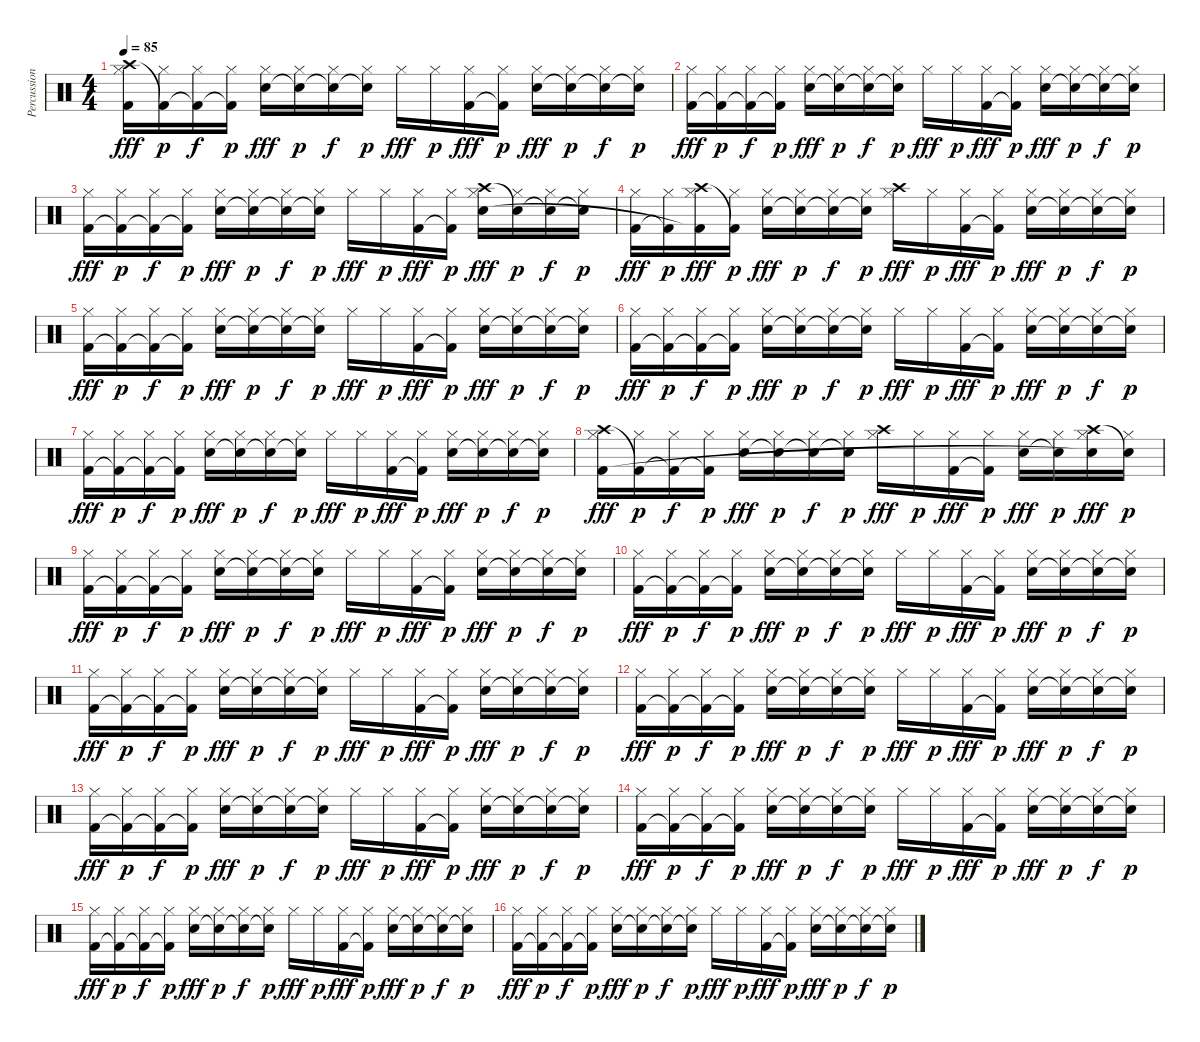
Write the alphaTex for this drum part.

\track ("Percussion" "Percussion") {instrument percussion}
\staff {score}
\articulation defaults
\ts (4 4)
\tempo 85
\clef neutral
\ks c
("Hi-Hat (closed)" "Crash high (hit)" "Kick (hit) 2").16{dy fff} ("Hi-Hat (closed)" "Kick (hit) 2"{t}).16{dy p} ("Hi-Hat (closed)" "Kick (hit) 2"{t}).16{dy f} ("Hi-Hat (closed)" "Kick (hit) 2"{t}).16{dy p} ("Hi-Hat (closed)" "Snare (hit) 2").16{dy fff} ("Hi-Hat (closed)" "Snare (hit) 2"{t}).16{dy p} ("Hi-Hat (closed)" "Snare (hit) 2"{t}).16{dy f} ("Hi-Hat (closed)" "Snare (hit) 2"{t}).16{dy p} "Hi-Hat (closed)".16{dy fff} "Hi-Hat (closed)".16{dy p} ("Hi-Hat (closed)" "Kick (hit) 2").16{dy fff} ("Hi-Hat (closed)" "Kick (hit) 2"{t}).16{dy p} ("Hi-Hat (closed)" "Snare (hit) 2").16{dy fff} ("Hi-Hat (closed)" "Snare (hit) 2"{t}).16{dy p} ("Hi-Hat (closed)" "Snare (hit) 2"{t}).16{dy f} ("Hi-Hat (closed)" "Snare (hit) 2"{t}).16{dy p} |
("Hi-Hat (closed)" "Kick (hit) 2").16{dy fff} ("Hi-Hat (closed)" "Kick (hit) 2"{t}).16{dy p} ("Hi-Hat (closed)" "Kick (hit) 2"{t}).16{dy f} ("Hi-Hat (closed)" "Kick (hit) 2"{t}).16{dy p} ("Hi-Hat (closed)" "Snare (hit) 2").16{dy fff} ("Hi-Hat (closed)" "Snare (hit) 2"{t}).16{dy p} ("Hi-Hat (closed)" "Snare (hit) 2"{t}).16{dy f} ("Hi-Hat (closed)" "Snare (hit) 2"{t}).16{dy p} "Hi-Hat (closed)".16{dy fff} "Hi-Hat (closed)".16{dy p} ("Hi-Hat (closed)" "Kick (hit) 2").16{dy fff} ("Hi-Hat (closed)" "Kick (hit) 2"{t}).16{dy p} ("Hi-Hat (closed)" "Snare (hit) 2").16{dy fff} ("Hi-Hat (closed)" "Snare (hit) 2"{t}).16{dy p} ("Hi-Hat (closed)" "Snare (hit) 2"{t}).16{dy f} ("Hi-Hat (closed)" "Snare (hit) 2"{t}).16{dy p} |
("Hi-Hat (closed)" "Kick (hit) 2").16{dy fff} ("Hi-Hat (closed)" "Kick (hit) 2"{t}).16{dy p} ("Hi-Hat (closed)" "Kick (hit) 2"{t}).16{dy f} ("Hi-Hat (closed)" "Kick (hit) 2"{t}).16{dy p} ("Hi-Hat (closed)" "Snare (hit) 2").16{dy fff} ("Hi-Hat (closed)" "Snare (hit) 2"{t}).16{dy p} ("Hi-Hat (closed)" "Snare (hit) 2"{t}).16{dy f} ("Hi-Hat (closed)" "Snare (hit) 2"{t}).16{dy p} "Hi-Hat (closed)".16{dy fff} "Hi-Hat (closed)".16{dy p} ("Hi-Hat (closed)" "Kick (hit) 2").16{dy fff} ("Hi-Hat (closed)" "Kick (hit) 2"{t}).16{dy p} ("Hi-Hat (closed)" "Crash high (hit)" "Snare (hit) 2").16{dy fff} ("Hi-Hat (closed)" "Snare (hit) 2"{t}).16{dy p} ("Hi-Hat (closed)" "Snare (hit) 2"{t}).16{dy f} ("Hi-Hat (closed)" "Snare (hit) 2"{t}).16{dy p} |
("Hi-Hat (closed)" "Kick (hit) 2").16{dy fff} ("Hi-Hat (closed)" "Kick (hit) 2"{t}).16{dy p} ("Hi-Hat (closed)" "Crash high (hit)" "Kick (hit) 2"{t}).16{dy fff} ("Hi-Hat (closed)" "Kick (hit) 2"{t}).16{dy p} ("Hi-Hat (closed)" "Snare (hit) 2").16{dy fff} ("Hi-Hat (closed)" "Snare (hit) 2"{t}).16{dy p} ("Hi-Hat (closed)" "Snare (hit) 2"{t}).16{dy f} ("Hi-Hat (closed)" "Snare (hit) 2"{t}).16{dy p} ("Hi-Hat (closed)" "Crash high (hit)").16{dy fff} "Hi-Hat (closed)".16{dy p} ("Hi-Hat (closed)" "Kick (hit) 2").16{dy fff} ("Hi-Hat (closed)" "Kick (hit) 2"{t}).16{dy p} ("Hi-Hat (closed)" "Snare (hit) 2").16{dy fff} ("Hi-Hat (closed)" "Snare (hit) 2"{t}).16{dy p} ("Hi-Hat (closed)" "Snare (hit) 2"{t}).16{dy f} ("Hi-Hat (closed)" "Snare (hit) 2"{t}).16{dy p} |
("Hi-Hat (closed)" "Kick (hit) 2").16{dy fff} ("Hi-Hat (closed)" "Kick (hit) 2"{t}).16{dy p} ("Hi-Hat (closed)" "Kick (hit) 2"{t}).16{dy f} ("Hi-Hat (closed)" "Kick (hit) 2"{t}).16{dy p} ("Hi-Hat (closed)" "Snare (hit) 2").16{dy fff} ("Hi-Hat (closed)" "Snare (hit) 2"{t}).16{dy p} ("Hi-Hat (closed)" "Snare (hit) 2"{t}).16{dy f} ("Hi-Hat (closed)" "Snare (hit) 2"{t}).16{dy p} "Hi-Hat (closed)".16{dy fff} "Hi-Hat (closed)".16{dy p} ("Hi-Hat (closed)" "Kick (hit) 2").16{dy fff} ("Hi-Hat (closed)" "Kick (hit) 2"{t}).16{dy p} ("Hi-Hat (closed)" "Snare (hit) 2").16{dy fff} ("Hi-Hat (closed)" "Snare (hit) 2"{t}).16{dy p} ("Hi-Hat (closed)" "Snare (hit) 2"{t}).16{dy f} ("Hi-Hat (closed)" "Snare (hit) 2"{t}).16{dy p} |
("Hi-Hat (closed)" "Kick (hit) 2").16{dy fff} ("Hi-Hat (closed)" "Kick (hit) 2"{t}).16{dy p} ("Hi-Hat (closed)" "Kick (hit) 2"{t}).16{dy f} ("Hi-Hat (closed)" "Kick (hit) 2"{t}).16{dy p} ("Hi-Hat (closed)" "Snare (hit) 2").16{dy fff} ("Hi-Hat (closed)" "Snare (hit) 2"{t}).16{dy p} ("Hi-Hat (closed)" "Snare (hit) 2"{t}).16{dy f} ("Hi-Hat (closed)" "Snare (hit) 2"{t}).16{dy p} "Hi-Hat (closed)".16{dy fff} "Hi-Hat (closed)".16{dy p} ("Hi-Hat (closed)" "Kick (hit) 2").16{dy fff} ("Hi-Hat (closed)" "Kick (hit) 2"{t}).16{dy p} ("Hi-Hat (closed)" "Snare (hit) 2").16{dy fff} ("Hi-Hat (closed)" "Snare (hit) 2"{t}).16{dy p} ("Hi-Hat (closed)" "Snare (hit) 2"{t}).16{dy f} ("Hi-Hat (closed)" "Snare (hit) 2"{t}).16{dy p} |
("Hi-Hat (closed)" "Kick (hit) 2").16{dy fff} ("Hi-Hat (closed)" "Kick (hit) 2"{t}).16{dy p} ("Hi-Hat (closed)" "Kick (hit) 2"{t}).16{dy f} ("Hi-Hat (closed)" "Kick (hit) 2"{t}).16{dy p} ("Hi-Hat (closed)" "Snare (hit) 2").16{dy fff} ("Hi-Hat (closed)" "Snare (hit) 2"{t}).16{dy p} ("Hi-Hat (closed)" "Snare (hit) 2"{t}).16{dy f} ("Hi-Hat (closed)" "Snare (hit) 2"{t}).16{dy p} "Hi-Hat (closed)".16{dy fff} "Hi-Hat (closed)".16{dy p} ("Hi-Hat (closed)" "Kick (hit) 2").16{dy fff} ("Hi-Hat (closed)" "Kick (hit) 2"{t}).16{dy p} ("Hi-Hat (closed)" "Snare (hit) 2").16{dy fff} ("Hi-Hat (closed)" "Snare (hit) 2"{t}).16{dy p} ("Hi-Hat (closed)" "Snare (hit) 2"{t}).16{dy f} ("Hi-Hat (closed)" "Snare (hit) 2"{t}).16{dy p} |
("Hi-Hat (closed)" "Crash high (hit)" "Kick (hit) 2").16{dy fff} ("Hi-Hat (closed)" "Kick (hit) 2"{t}).16{dy p} ("Hi-Hat (closed)" "Kick (hit) 2"{t}).16{dy f} ("Hi-Hat (closed)" "Kick (hit) 2"{t}).16{dy p} ("Hi-Hat (closed)" "Snare (hit) 2").16{dy fff} ("Hi-Hat (closed)" "Snare (hit) 2"{t}).16{dy p} ("Hi-Hat (closed)" "Snare (hit) 2"{t}).16{dy f} ("Hi-Hat (closed)" "Snare (hit) 2"{t}).16{dy p} ("Hi-Hat (closed)" "Crash high (hit)").16{dy fff} "Hi-Hat (closed)".16{dy p} ("Hi-Hat (closed)" "Kick (hit) 2").16{dy fff} ("Hi-Hat (closed)" "Kick (hit) 2"{t}).16{dy p} ("Hi-Hat (closed)" "Snare (hit) 2").16{dy fff} ("Hi-Hat (closed)" "Snare (hit) 2"{t}).16{dy p} ("Hi-Hat (closed)" "Crash high (hit)" "Snare (hit) 2"{t}).16{dy fff} ("Hi-Hat (closed)" "Snare (hit) 2"{t}).16{dy p} |
("Hi-Hat (closed)" "Kick (hit) 2").16{dy fff} ("Hi-Hat (closed)" "Kick (hit) 2"{t}).16{dy p} ("Hi-Hat (closed)" "Kick (hit) 2"{t}).16{dy f} ("Hi-Hat (closed)" "Kick (hit) 2"{t}).16{dy p} ("Hi-Hat (closed)" "Snare (hit) 2").16{dy fff} ("Hi-Hat (closed)" "Snare (hit) 2"{t}).16{dy p} ("Hi-Hat (closed)" "Snare (hit) 2"{t}).16{dy f} ("Hi-Hat (closed)" "Snare (hit) 2"{t}).16{dy p} "Hi-Hat (closed)".16{dy fff} "Hi-Hat (closed)".16{dy p} ("Hi-Hat (closed)" "Kick (hit) 2").16{dy fff} ("Hi-Hat (closed)" "Kick (hit) 2"{t}).16{dy p} ("Hi-Hat (closed)" "Snare (hit) 2").16{dy fff} ("Hi-Hat (closed)" "Snare (hit) 2"{t}).16{dy p} ("Hi-Hat (closed)" "Snare (hit) 2"{t}).16{dy f} ("Hi-Hat (closed)" "Snare (hit) 2"{t}).16{dy p} |
("Hi-Hat (closed)" "Kick (hit) 2").16{dy fff} ("Hi-Hat (closed)" "Kick (hit) 2"{t}).16{dy p} ("Hi-Hat (closed)" "Kick (hit) 2"{t}).16{dy f} ("Hi-Hat (closed)" "Kick (hit) 2"{t}).16{dy p} ("Hi-Hat (closed)" "Snare (hit) 2").16{dy fff} ("Hi-Hat (closed)" "Snare (hit) 2"{t}).16{dy p} ("Hi-Hat (closed)" "Snare (hit) 2"{t}).16{dy f} ("Hi-Hat (closed)" "Snare (hit) 2"{t}).16{dy p} "Hi-Hat (closed)".16{dy fff} "Hi-Hat (closed)".16{dy p} ("Hi-Hat (closed)" "Kick (hit) 2").16{dy fff} ("Hi-Hat (closed)" "Kick (hit) 2"{t}).16{dy p} ("Hi-Hat (closed)" "Snare (hit) 2").16{dy fff} ("Hi-Hat (closed)" "Snare (hit) 2"{t}).16{dy p} ("Hi-Hat (closed)" "Snare (hit) 2"{t}).16{dy f} ("Hi-Hat (closed)" "Snare (hit) 2"{t}).16{dy p} |
("Hi-Hat (closed)" "Kick (hit) 2").16{dy fff} ("Hi-Hat (closed)" "Kick (hit) 2"{t}).16{dy p} ("Hi-Hat (closed)" "Kick (hit) 2"{t}).16{dy f} ("Hi-Hat (closed)" "Kick (hit) 2"{t}).16{dy p} ("Hi-Hat (closed)" "Snare (hit) 2").16{dy fff} ("Hi-Hat (closed)" "Snare (hit) 2"{t}).16{dy p} ("Hi-Hat (closed)" "Snare (hit) 2"{t}).16{dy f} ("Hi-Hat (closed)" "Snare (hit) 2"{t}).16{dy p} "Hi-Hat (closed)".16{dy fff} "Hi-Hat (closed)".16{dy p} ("Hi-Hat (closed)" "Kick (hit) 2").16{dy fff} ("Hi-Hat (closed)" "Kick (hit) 2"{t}).16{dy p} ("Hi-Hat (closed)" "Snare (hit) 2").16{dy fff} ("Hi-Hat (closed)" "Snare (hit) 2"{t}).16{dy p} ("Hi-Hat (closed)" "Snare (hit) 2"{t}).16{dy f} ("Hi-Hat (closed)" "Snare (hit) 2"{t}).16{dy p} |
("Hi-Hat (closed)" "Kick (hit) 2").16{dy fff} ("Hi-Hat (closed)" "Kick (hit) 2"{t}).16{dy p} ("Hi-Hat (closed)" "Kick (hit) 2"{t}).16{dy f} ("Hi-Hat (closed)" "Kick (hit) 2"{t}).16{dy p} ("Hi-Hat (closed)" "Snare (hit) 2").16{dy fff} ("Hi-Hat (closed)" "Snare (hit) 2"{t}).16{dy p} ("Hi-Hat (closed)" "Snare (hit) 2"{t}).16{dy f} ("Hi-Hat (closed)" "Snare (hit) 2"{t}).16{dy p} "Hi-Hat (closed)".16{dy fff} "Hi-Hat (closed)".16{dy p} ("Hi-Hat (closed)" "Kick (hit) 2").16{dy fff} ("Hi-Hat (closed)" "Kick (hit) 2"{t}).16{dy p} ("Hi-Hat (closed)" "Snare (hit) 2").16{dy fff} ("Hi-Hat (closed)" "Snare (hit) 2"{t}).16{dy p} ("Hi-Hat (closed)" "Snare (hit) 2"{t}).16{dy f} ("Hi-Hat (closed)" "Snare (hit) 2"{t}).16{dy p} |
("Hi-Hat (closed)" "Kick (hit) 2").16{dy fff} ("Hi-Hat (closed)" "Kick (hit) 2"{t}).16{dy p} ("Hi-Hat (closed)" "Kick (hit) 2"{t}).16{dy f} ("Hi-Hat (closed)" "Kick (hit) 2"{t}).16{dy p} ("Hi-Hat (closed)" "Snare (hit) 2").16{dy fff} ("Hi-Hat (closed)" "Snare (hit) 2"{t}).16{dy p} ("Hi-Hat (closed)" "Snare (hit) 2"{t}).16{dy f} ("Hi-Hat (closed)" "Snare (hit) 2"{t}).16{dy p} "Hi-Hat (closed)".16{dy fff} "Hi-Hat (closed)".16{dy p} ("Hi-Hat (closed)" "Kick (hit) 2").16{dy fff} ("Hi-Hat (closed)" "Kick (hit) 2"{t}).16{dy p} ("Hi-Hat (closed)" "Snare (hit) 2").16{dy fff} ("Hi-Hat (closed)" "Snare (hit) 2"{t}).16{dy p} ("Hi-Hat (closed)" "Snare (hit) 2"{t}).16{dy f} ("Hi-Hat (closed)" "Snare (hit) 2"{t}).16{dy p} |
("Hi-Hat (closed)" "Kick (hit) 2").16{dy fff} ("Hi-Hat (closed)" "Kick (hit) 2"{t}).16{dy p} ("Hi-Hat (closed)" "Kick (hit) 2"{t}).16{dy f} ("Hi-Hat (closed)" "Kick (hit) 2"{t}).16{dy p} ("Hi-Hat (closed)" "Snare (hit) 2").16{dy fff} ("Hi-Hat (closed)" "Snare (hit) 2"{t}).16{dy p} ("Hi-Hat (closed)" "Snare (hit) 2"{t}).16{dy f} ("Hi-Hat (closed)" "Snare (hit) 2"{t}).16{dy p} "Hi-Hat (closed)".16{dy fff} "Hi-Hat (closed)".16{dy p} ("Hi-Hat (closed)" "Kick (hit) 2").16{dy fff} ("Hi-Hat (closed)" "Kick (hit) 2"{t}).16{dy p} ("Hi-Hat (closed)" "Snare (hit) 2").16{dy fff} ("Hi-Hat (closed)" "Snare (hit) 2"{t}).16{dy p} ("Hi-Hat (closed)" "Snare (hit) 2"{t}).16{dy f} ("Hi-Hat (closed)" "Snare (hit) 2"{t}).16{dy p} |
("Hi-Hat (closed)" "Kick (hit) 2").16{dy fff} ("Hi-Hat (closed)" "Kick (hit) 2"{t}).16{dy p} ("Hi-Hat (closed)" "Kick (hit) 2"{t}).16{dy f} ("Hi-Hat (closed)" "Kick (hit) 2"{t}).16{dy p} ("Hi-Hat (closed)" "Snare (hit) 2").16{dy fff} ("Hi-Hat (closed)" "Snare (hit) 2"{t}).16{dy p} ("Hi-Hat (closed)" "Snare (hit) 2"{t}).16{dy f} ("Hi-Hat (closed)" "Snare (hit) 2"{t}).16{dy p} "Hi-Hat (closed)".16{dy fff} "Hi-Hat (closed)".16{dy p} ("Hi-Hat (closed)" "Kick (hit) 2").16{dy fff} ("Hi-Hat (closed)" "Kick (hit) 2"{t}).16{dy p} ("Hi-Hat (closed)" "Snare (hit) 2").16{dy fff} ("Hi-Hat (closed)" "Snare (hit) 2"{t}).16{dy p} ("Hi-Hat (closed)" "Snare (hit) 2"{t}).16{dy f} ("Hi-Hat (closed)" "Snare (hit) 2"{t}).16{dy p} |
("Hi-Hat (closed)" "Kick (hit) 2").16{dy fff} ("Hi-Hat (closed)" "Kick (hit) 2"{t}).16{dy p} ("Hi-Hat (closed)" "Kick (hit) 2"{t}).16{dy f} ("Hi-Hat (closed)" "Kick (hit) 2"{t}).16{dy p} ("Hi-Hat (closed)" "Snare (hit) 2").16{dy fff} ("Hi-Hat (closed)" "Snare (hit) 2"{t}).16{dy p} ("Hi-Hat (closed)" "Snare (hit) 2"{t}).16{dy f} ("Hi-Hat (closed)" "Snare (hit) 2"{t}).16{dy p} "Hi-Hat (closed)".16{dy fff} "Hi-Hat (closed)".16{dy p} ("Hi-Hat (closed)" "Kick (hit) 2").16{dy fff} ("Hi-Hat (closed)" "Kick (hit) 2"{t}).16{dy p} ("Hi-Hat (closed)" "Snare (hit) 2").16{dy fff} ("Hi-Hat (closed)" "Snare (hit) 2"{t}).16{dy p} ("Hi-Hat (closed)" "Snare (hit) 2"{t}).16{dy f} ("Hi-Hat (closed)" "Snare (hit) 2"{t}).16{dy p}
